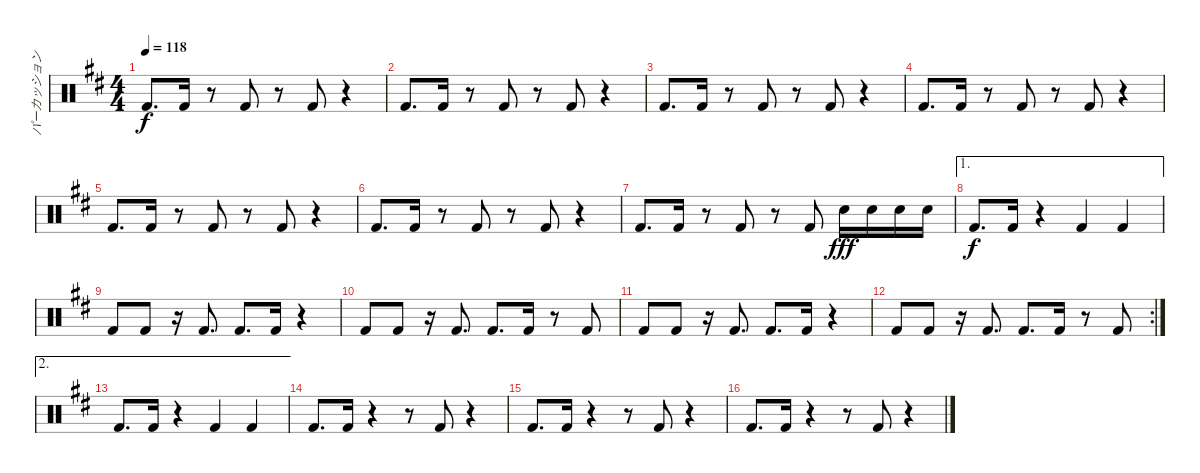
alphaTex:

\track ("パーカッション" "パーカッション") {instrument percussion}
\staff {score}
\articulation defaults
\ts (4 4)
\tempo 118
\clef neutral
\ks d "Kick (hit) 2".8{d dy f} "Kick (hit) 2".16
r.8 "Kick (hit) 2".8 r.8 "Kick (hit) 2".8 r.4 |
"Kick (hit) 2".8{d} "Kick (hit) 2".16 r.8 "Kick (hit) 2".8 r.8 "Kick (hit) 2".8 r.4 |
"Kick (hit) 2".8{d} "Kick (hit) 2".16 r.8 "Kick (hit) 2".8 r.8 "Kick (hit) 2".8 r.4 |
"Kick (hit) 2".8{d} "Kick (hit) 2".16 r.8 "Kick (hit) 2".8 r.8 "Kick (hit) 2".8 r.4 |
"Kick (hit) 2".8{d} "Kick (hit) 2".16 r.8 "Kick (hit) 2".8 r.8 "Kick (hit) 2".8 r.4 |
"Kick (hit) 2".8{d} "Kick (hit) 2".16 r.8 "Kick (hit) 2".8 r.8 "Kick (hit) 2".8 r.4 |
"Kick (hit) 2".8{d} "Kick (hit) 2".16 r.8 "Kick (hit) 2".8 r.8 "Kick (hit) 2".8 "Electric Snare (hit)".16{dy fff} "Electric Snare (hit)".16 "Electric Snare (hit)".16 "Electric Snare (hit)".16 |
\ae 1 "Kick (hit) 2".8{d dy f} "Kick (hit) 2".16
r.4 "Kick (hit) 2".4 "Kick (hit) 2".4 |
"Kick (hit) 2".8 "Kick (hit) 2".8 r.16 "Kick (hit) 2".8{d} "Kick (hit) 2".8{d} "Kick (hit) 2".16 r.4 |
"Kick (hit) 2".8 "Kick (hit) 2".8 r.16 "Kick (hit) 2".8{d} "Kick (hit) 2".8{d} "Kick (hit) 2".16 r.8 "Kick (hit) 2".8 |
"Kick (hit) 2".8 "Kick (hit) 2".8 r.16 "Kick (hit) 2".8{d} "Kick (hit) 2".8{d} "Kick (hit) 2".16 r.4 |
\rc 2 "Kick (hit) 2".8 "Kick (hit) 2".8
r.16 "Kick (hit) 2".8{d} "Kick (hit) 2".8{d} "Kick (hit) 2".16 r.8 "Kick (hit) 2".8 |
\ae 2 "Kick (hit) 2".8{d} "Kick (hit) 2".16
r.4 "Kick (hit) 2".4 "Kick (hit) 2".4 |
"Kick (hit) 2".8{d} "Kick (hit) 2".16 r.4 r.8 "Kick (hit) 2".8 r.4 |
"Kick (hit) 2".8{d} "Kick (hit) 2".16 r.4 r.8 "Kick (hit) 2".8 r.4 |
"Kick (hit) 2".8{d} "Kick (hit) 2".16 r.4 r.8 "Kick (hit) 2".8 r.4
